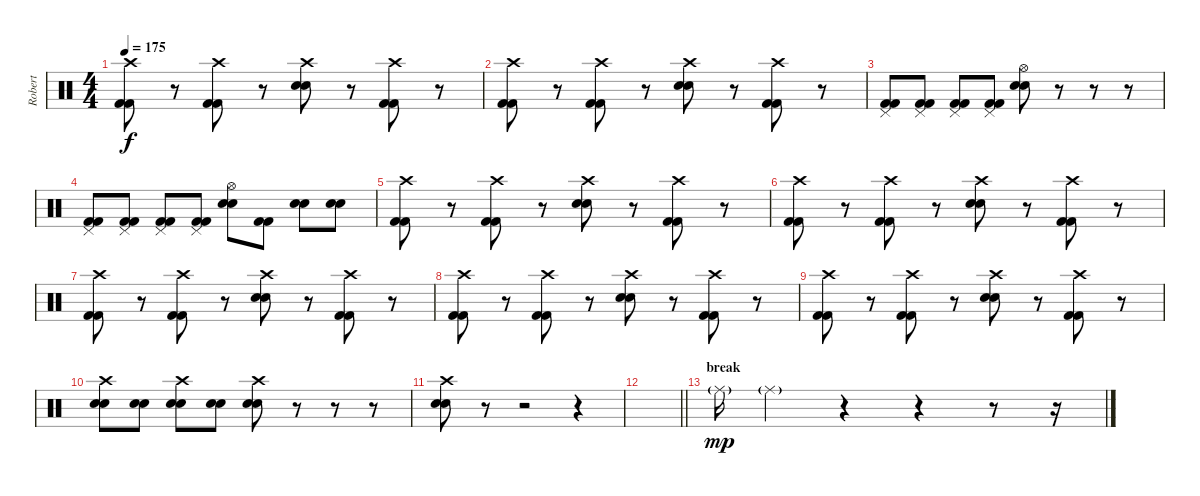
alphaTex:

\track ("Robert" "Robert") {instrument percussion}
\staff {score}
\articulation defaults
\ts (4 4)
\tempo 175
\clef neutral
\ks c
("Crash high (hit)" "Kick (hit) 2" "Kick (hit) 2").8{dy f} r.8 ("Crash high (hit)" "Kick (hit) 2" "Kick (hit) 2").8 r.8 ("Crash high (hit)" "Electric Snare (hit)" "Electric Snare (hit)").8 r.8 ("Crash high (hit)" "Kick (hit) 2" "Kick (hit) 2").8 r.8 |
("Crash high (hit)" "Kick (hit) 2" "Kick (hit) 2").8 r.8 ("Crash high (hit)" "Kick (hit) 2" "Kick (hit) 2").8 r.8 ("Crash high (hit)" "Electric Snare (hit)" "Electric Snare (hit)").8 r.8 ("Crash high (hit)" "Kick (hit) 2" "Kick (hit) 2").8 r.8 |
("Pedal Hi-Hat (hit)" "Kick (hit) 2" "Kick (hit) 2").8 ("Pedal Hi-Hat (hit)" "Kick (hit) 2" "Kick (hit) 2").8 ("Pedal Hi-Hat (hit)" "Kick (hit) 2" "Kick (hit) 2").8 ("Pedal Hi-Hat (hit)" "Kick (hit) 2" "Kick (hit) 2").8 ("Hi-Hat (open)" "Electric Snare (hit)" "Electric Snare (hit)").8 r.8 r.8 r.8 |
("Pedal Hi-Hat (hit)" "Kick (hit) 2" "Kick (hit) 2").8 ("Pedal Hi-Hat (hit)" "Kick (hit) 2" "Kick (hit) 2").8 ("Pedal Hi-Hat (hit)" "Kick (hit) 2" "Kick (hit) 2").8 ("Pedal Hi-Hat (hit)" "Kick (hit) 2" "Kick (hit) 2").8 ("Hi-Hat (open)" "Electric Snare (hit)" "Electric Snare (hit)").8 ("Kick (hit) 2" "Kick (hit) 2").8 ("Electric Snare (hit)" "Electric Snare (hit)").8 ("Electric Snare (hit)" "Electric Snare (hit)").8 |
("Crash high (hit)" "Kick (hit) 2" "Kick (hit) 2").8 r.8 ("Crash high (hit)" "Kick (hit) 2" "Kick (hit) 2").8 r.8 ("Crash high (hit)" "Electric Snare (hit)" "Electric Snare (hit)").8 r.8 ("Crash high (hit)" "Kick (hit) 2" "Kick (hit) 2").8 r.8 |
("Crash high (hit)" "Kick (hit) 2" "Kick (hit) 2").8 r.8 ("Crash high (hit)" "Kick (hit) 2" "Kick (hit) 2").8 r.8 ("Crash high (hit)" "Electric Snare (hit)" "Electric Snare (hit)").8 r.8 ("Crash high (hit)" "Kick (hit) 2" "Kick (hit) 2").8 r.8 |
("Crash high (hit)" "Kick (hit) 2" "Kick (hit) 2").8 r.8 ("Crash high (hit)" "Kick (hit) 2" "Kick (hit) 2").8 r.8 ("Crash high (hit)" "Electric Snare (hit)" "Electric Snare (hit)").8 r.8 ("Crash high (hit)" "Kick (hit) 2" "Kick (hit) 2").8 r.8 |
("Crash high (hit)" "Kick (hit) 2" "Kick (hit) 2").8 r.8 ("Crash high (hit)" "Kick (hit) 2" "Kick (hit) 2").8 r.8 ("Crash high (hit)" "Electric Snare (hit)" "Electric Snare (hit)").8 r.8 ("Crash high (hit)" "Kick (hit) 2" "Kick (hit) 2").8 r.8 |
("Crash high (hit)" "Kick (hit) 2" "Kick (hit) 2").8 r.8 ("Crash high (hit)" "Kick (hit) 2" "Kick (hit) 2").8 r.8 ("Crash high (hit)" "Electric Snare (hit)" "Electric Snare (hit)").8 r.8 ("Crash high (hit)" "Kick (hit) 2" "Kick (hit) 2").8 r.8 |
("Crash high (hit)" "Electric Snare (hit)" "Electric Snare (hit)").8 ("Electric Snare (hit)" "Electric Snare (hit)").8 ("Crash high (hit)" "Electric Snare (hit)" "Electric Snare (hit)").8 ("Electric Snare (hit)" "Electric Snare (hit)").8 ("Crash high (hit)" "Electric Snare (hit)" "Electric Snare (hit)").8 r.8 r.8 r.8 |
("Crash high (hit)" "Electric Snare (hit)" "Electric Snare (hit)").8 r.8 r.2 r.4 |
\barLineRight lightlight
|
\section ("" "break")
"Ride (middle)"{g}.16{dy mp} "Ride (middle)"{g}.4 r.4 r.4 r.8 r.16
